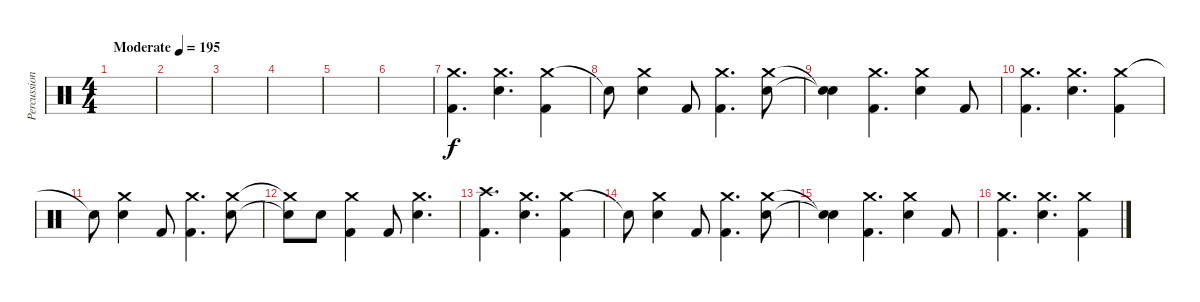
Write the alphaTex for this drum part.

\track ("Percussion" "Percussion") {instrument percussion}
\staff {score}
\articulation defaults
\ts (4 4)
\tempo (195 "Moderate")
\clef neutral
\ks c
|
|
|
|
|
|
("Crash medium (hit)" "Kick (hit) 2").4{d} ("Crash medium (hit)" "Electric Snare (hit)").4{d} ("Crash medium (hit)" "Kick (hit) 2").4 |
"Snare (hit)"{t}.8 ("Crash medium (hit)" "Electric Snare (hit)").4 "Kick (hit) 2".8 ("Crash medium (hit)" "Kick (hit) 2").4{d} ("Crash medium (hit)" "Electric Snare (hit)").8 |
("Snare (hit)"{t} "Snare (hit)"{t}).4 ("Crash medium (hit)" "Kick (hit) 2").4{d} ("Crash medium (hit)" "Electric Snare (hit)").4 "Kick (hit) 2".8 |
("Crash medium (hit)" "Kick (hit) 2").4{d} ("Crash medium (hit)" "Electric Snare (hit)").4{d} ("Crash medium (hit)" "Kick (hit) 2").4 |
"Snare (hit)"{t}.8 ("Crash medium (hit)" "Electric Snare (hit)").4 "Kick (hit) 2".8 ("Crash medium (hit)" "Kick (hit) 2").4{d} ("Crash medium (hit)" "Electric Snare (hit)").8 |
("Crash medium (hit)"{t} "Electric Snare (hit)"{t}).8 "Electric Snare (hit)".8 ("Crash medium (hit)" "Kick (hit) 2").4 "Kick (hit) 2".8 ("Crash medium (hit)" "Electric Snare (hit)").4{d} |
("Crash high (hit)" "Kick (hit) 2").4{d} ("Crash medium (hit)" "Electric Snare (hit)").4{d} ("Crash medium (hit)" "Kick (hit) 2").4 |
"Snare (hit)"{t}.8 ("Crash medium (hit)" "Electric Snare (hit)").4 "Kick (hit) 2".8 ("Crash medium (hit)" "Kick (hit) 2").4{d} ("Crash medium (hit)" "Electric Snare (hit)").8 |
("Snare (hit)"{t} "Snare (hit)"{t}).4 ("Crash medium (hit)" "Kick (hit) 2").4{d} ("Crash medium (hit)" "Electric Snare (hit)").4 "Kick (hit) 2".8 |
("Crash medium (hit)" "Kick (hit) 2").4{d} ("Crash medium (hit)" "Electric Snare (hit)").4{d} ("Crash medium (hit)" "Kick (hit) 2").4
